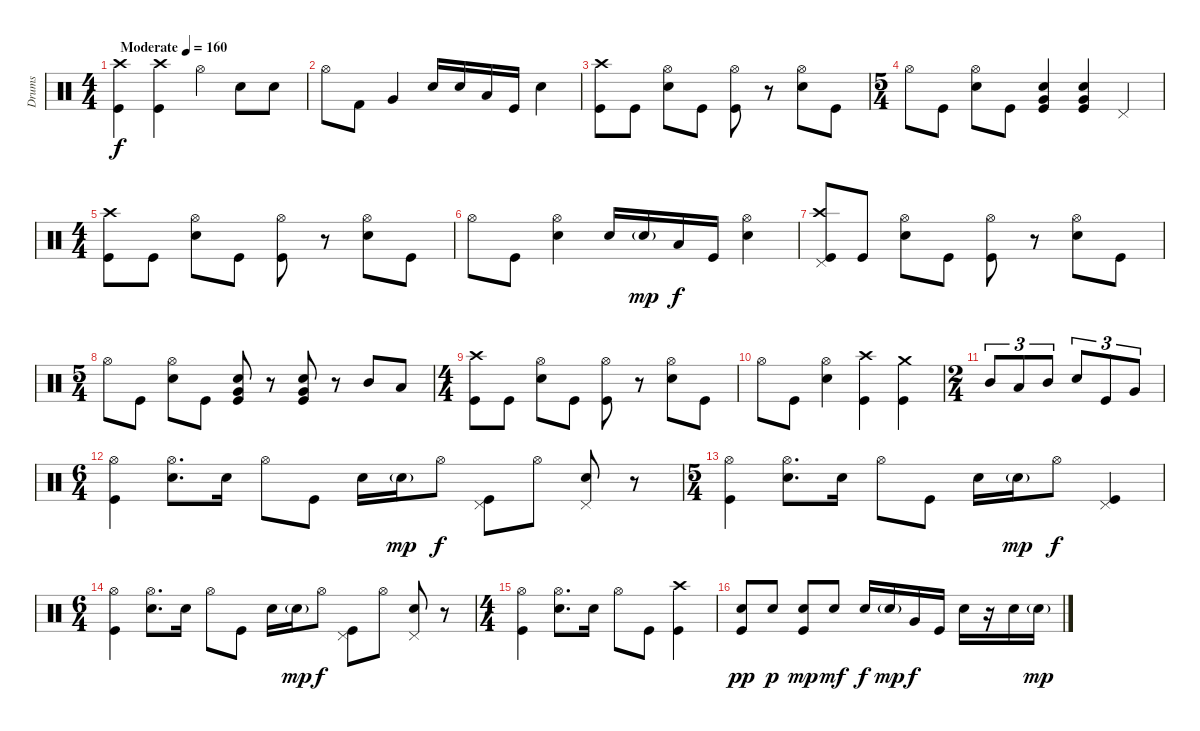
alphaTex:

\track ("Drums" "Drums") {instrument percussion}
\staff {score}
\articulation defaults
\ts (4 4)
\tempo (160 "Moderate")
\clef neutral
\ks c
("Kick (hit)" "Crash high (hit)").4{dy f} ("Kick (hit)" "Crash high (hit)").4 "Hi-Hat (open)".4 "Snare (hit) 2".8 "Snare (hit) 2".8 |
"Hi-Hat (open)".8 "Kick (hit) 2".8 "Very Low Tom (hit)".4 "Snare (hit) 2".16 "Snare (hit) 2".16 "Low Tom (hit)".16 "Kick (hit)".16 "Snare (hit) 2".4 |
("Kick (hit)" "Crash high (hit)").8 "Kick (hit)".8 ("Snare (hit) 2" "Hi-Hat (open)").8 "Kick (hit)".8 ("Kick (hit)" "Hi-Hat (open)").8 r.8 ("Snare (hit) 2" "Hi-Hat (open)").8 "Kick (hit)".8 |
\ts (5 4)
"Hi-Hat (open)".8 "Kick (hit)".8 ("Snare (hit) 2" "Hi-Hat (open)").8 "Kick (hit)".8 ("Kick (hit)" "Snare (hit) 2" "Very Low Tom (hit)").4 ("Kick (hit)" "Snare (hit) 2" "Very Low Tom (hit)").4 "Pedal Hi-Hat (hit)".4 |
\ts (4 4)
("Kick (hit)" "Crash high (hit)").8 "Kick (hit)".8 ("Snare (hit) 2" "Hi-Hat (open)").8 "Kick (hit)".8 ("Kick (hit)" "Hi-Hat (open)").8 r.8 ("Snare (hit) 2" "Hi-Hat (open)").8 "Kick (hit)".8 |
"Hi-Hat (open)".8 "Kick (hit)".8 ("Snare (hit) 2" "Hi-Hat (open)").4 "Snare (hit) 2".16 "Snare (hit) 2"{g}.16{dy mp} "Low Tom (hit)".16{dy f} "Kick (hit)".16 ("Snare (hit) 2" "Hi-Hat (open)").4 |
("Kick (hit)" "Pedal Hi-Hat (hit)" "Crash high (hit)").8 "Kick (hit)".8 ("Snare (hit) 2" "Hi-Hat (open)").8 "Kick (hit)".8 ("Kick (hit)" "Hi-Hat (open)").8 r.8 ("Snare (hit) 2" "Hi-Hat (open)").8 "Kick (hit)".8 |
\ts (5 4)
"Hi-Hat (open)".8 "Kick (hit)".8 ("Snare (hit) 2" "Hi-Hat (open)").8 "Kick (hit)".8 ("Kick (hit)" "Snare (hit) 2" "Very Low Tom (hit)").8 r.8 ("Kick (hit)" "Snare (hit) 2" "Very Low Tom (hit)").8 r.8 "Mid Tom (hit)".8 "Low Tom (hit)".8 |
\ts (4 4)
("Kick (hit)" "Crash high (hit)").8 "Kick (hit)".8 ("Snare (hit) 2" "Hi-Hat (open)").8 "Kick (hit)".8 ("Kick (hit)" "Hi-Hat (open)").8 r.8 ("Snare (hit) 2" "Hi-Hat (open)").8 "Kick (hit)".8 |
"Hi-Hat (open)".8 "Kick (hit)".8 ("Snare (hit) 2" "Hi-Hat (open)").4 ("Kick (hit)" "Crash high (hit)").4 ("Kick (hit)" "Crash medium (hit)").4 |
\ts (2 4)
"Mid Tom (hit)".8{tu (3 2)} "Low Tom (hit)".8{tu (3 2)} "Mid Tom (hit)".8{tu (3 2)} "Snare (hit) 2".8{tu (3 2)} "Kick (hit)".8{tu (3 2)} "Very Low Tom (hit)".8{tu (3 2)} |
\ts (6 4)
("Kick (hit)" "Hi-Hat (open)").4 ("Snare (hit) 2" "Hi-Hat (open)").8{d} "Snare (hit) 2".16 "Hi-Hat (open)".8 "Kick (hit)".8 "Snare (hit) 2".16 "Snare (hit) 2"{g}.16{dy mp} "Hi-Hat (open)".8{dy f} ("Kick (hit)" "Pedal Hi-Hat (hit)").8 "Hi-Hat (open)".8 ("Snare (hit) 2" "Pedal Hi-Hat (hit)").8 r.8 |
\ts (5 4)
("Kick (hit)" "Hi-Hat (open)").4 ("Snare (hit) 2" "Hi-Hat (open)").8{d} "Snare (hit) 2".16 "Hi-Hat (open)".8 "Kick (hit)".8 "Snare (hit) 2".16 "Snare (hit) 2"{g}.16{dy mp} "Hi-Hat (open)".8{dy f} ("Kick (hit)" "Pedal Hi-Hat (hit)").4 |
\ts (6 4)
("Kick (hit)" "Hi-Hat (open)").4 ("Snare (hit) 2" "Hi-Hat (open)").8{d} "Snare (hit) 2".16 "Hi-Hat (open)".8 "Kick (hit)".8 "Snare (hit) 2".16 "Snare (hit) 2"{g}.16{dy mp} "Hi-Hat (open)".8{dy f} ("Kick (hit)" "Pedal Hi-Hat (hit)").8 "Hi-Hat (open)".8 ("Snare (hit) 2" "Pedal Hi-Hat (hit)").8 r.8 |
\ts (4 4)
("Kick (hit)" "Hi-Hat (open)").4 ("Snare (hit) 2" "Hi-Hat (open)").8{d} "Snare (hit) 2".16 "Hi-Hat (open)".8 "Kick (hit)".8 ("Kick (hit)" "Crash high (hit)").4 |
("Kick (hit)" "Snare (hit) 2").8{dy pp} "Snare (hit) 2".8{dy p} ("Kick (hit)" "Snare (hit) 2").8{dy mp} "Snare (hit) 2".8{dy mf} "Snare (hit) 2".16{dy f} "Snare (hit) 2"{g}.16{dy mp} "Very Low Tom (hit)".16{dy f} "Kick (hit)".16 "Snare (hit) 2".16 r.16 "Snare (hit) 2".16 "Snare (hit) 2"{g}.16{dy mp}
